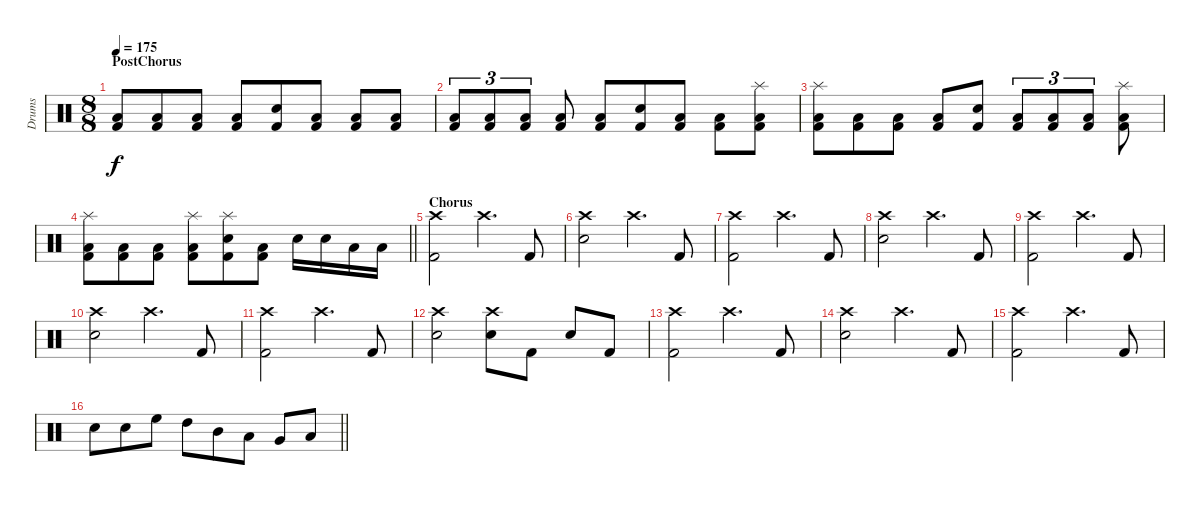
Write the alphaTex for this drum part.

\track ("Drums" "Drums") {instrument percussion}
\staff {score}
\articulation defaults
\ts (8 8)
\section ("" "PostChorus")
\tempo 175
\clef neutral
\ks c
("Low Floor Tom (hit)" "Kick (hit) 2").8{dy f} ("Low Floor Tom (hit)" "Kick (hit) 2").8 ("Low Floor Tom (hit)" "Kick (hit) 2").8 ("Low Floor Tom (hit)" "Kick (hit) 2").8 ("Electric Snare (hit)" "Kick (hit) 2").8 ("Low Floor Tom (hit)" "Kick (hit) 2").8 ("Low Floor Tom (hit)" "Kick (hit) 2").8 ("Low Floor Tom (hit)" "Kick (hit) 2").8 |
("Low Floor Tom (hit)" "Kick (hit) 2").8{tu (3 2)} ("Low Floor Tom (hit)" "Kick (hit) 2").8{tu (3 2)} ("Low Floor Tom (hit)" "Kick (hit) 2").8{tu (3 2)} ("Low Floor Tom (hit)" "Kick (hit) 2").8 ("Low Floor Tom (hit)" "Kick (hit) 2").8 ("Electric Snare (hit)" "Kick (hit) 2").8 ("Low Floor Tom (hit)" "Kick (hit) 2").8 ("Low Floor Tom (hit)" "Kick (hit) 2").8 ("Splash (hit)" "Low Floor Tom (hit)" "Kick (hit) 2").8 |
("Splash (hit)" "Low Floor Tom (hit)" "Kick (hit) 2").8 ("Low Floor Tom (hit)" "Kick (hit) 2").8 ("Low Floor Tom (hit)" "Kick (hit) 2").8 ("Low Floor Tom (hit)" "Kick (hit) 2").8 ("Electric Snare (hit)" "Kick (hit) 2").8 ("Low Floor Tom (hit)" "Kick (hit) 2").8{tu (3 2)} ("Low Floor Tom (hit)" "Kick (hit) 2").8{tu (3 2)} ("Low Floor Tom (hit)" "Kick (hit) 2").8{tu (3 2)} ("Splash (hit)" "Low Floor Tom (hit)" "Kick (hit) 2").8 |
\barLineRight lightlight
("Splash (hit)" "Low Floor Tom (hit)" "Kick (hit) 2").8 ("Low Floor Tom (hit)" "Kick (hit) 2").8 ("Low Floor Tom (hit)" "Kick (hit) 2").8 ("Splash (hit)" "Low Floor Tom (hit)" "Kick (hit) 2").8 ("Splash (hit)" "Electric Snare (hit)" "Kick (hit) 2").8 ("Low Floor Tom (hit)" "Kick (hit) 2").8 "Electric Snare (hit)".16 "Electric Snare (hit)".16 "Low Tom (hit)".16 "Low Tom (hit)".16 |
\section ("" "Chorus")
("Crash high (hit)" "Kick (hit) 2").2 "Crash high (hit)".4{d} "Kick (hit) 2".8 |
("Crash high (hit)" "Electric Snare (hit)").2 "Crash high (hit)".4{d} "Kick (hit) 2".8 |
("Crash high (hit)" "Kick (hit) 2").2 "Crash high (hit)".4{d} "Kick (hit) 2".8 |
("Crash high (hit)" "Electric Snare (hit)").2 "Crash high (hit)".4{d} "Kick (hit) 2".8 |
("Crash high (hit)" "Kick (hit) 2").2 "Crash high (hit)".4{d} "Kick (hit) 2".8 |
("Crash high (hit)" "Electric Snare (hit)").2 "Crash high (hit)".4{d} "Kick (hit) 2".8 |
("Crash high (hit)" "Kick (hit) 2").2 "Crash high (hit)".4{d} "Kick (hit) 2".8 |
("Crash high (hit)" "Electric Snare (hit)").2 ("Crash high (hit)" "Electric Snare (hit)").8 "Kick (hit) 2".8 "Electric Snare (hit)".8 "Kick (hit) 2".8 |
("Crash high (hit)" "Kick (hit) 2").2 "Crash high (hit)".4{d} "Kick (hit) 2".8 |
("Crash high (hit)" "Electric Snare (hit)").2 "Crash high (hit)".4{d} "Kick (hit) 2".8 |
("Crash high (hit)" "Kick (hit) 2").2 "Crash high (hit)".4{d} "Kick (hit) 2".8 |
\barLineRight lightlight "Electric Snare (hit)".8 "Electric Snare (hit)".8 "High Floor Tom (hit)".8 "High Tom (hit)".8 "Mid Tom (hit)".8 "Low Tom (hit)".8 "Very Low Tom (hit)".8 "Low Floor Tom (hit)".8
